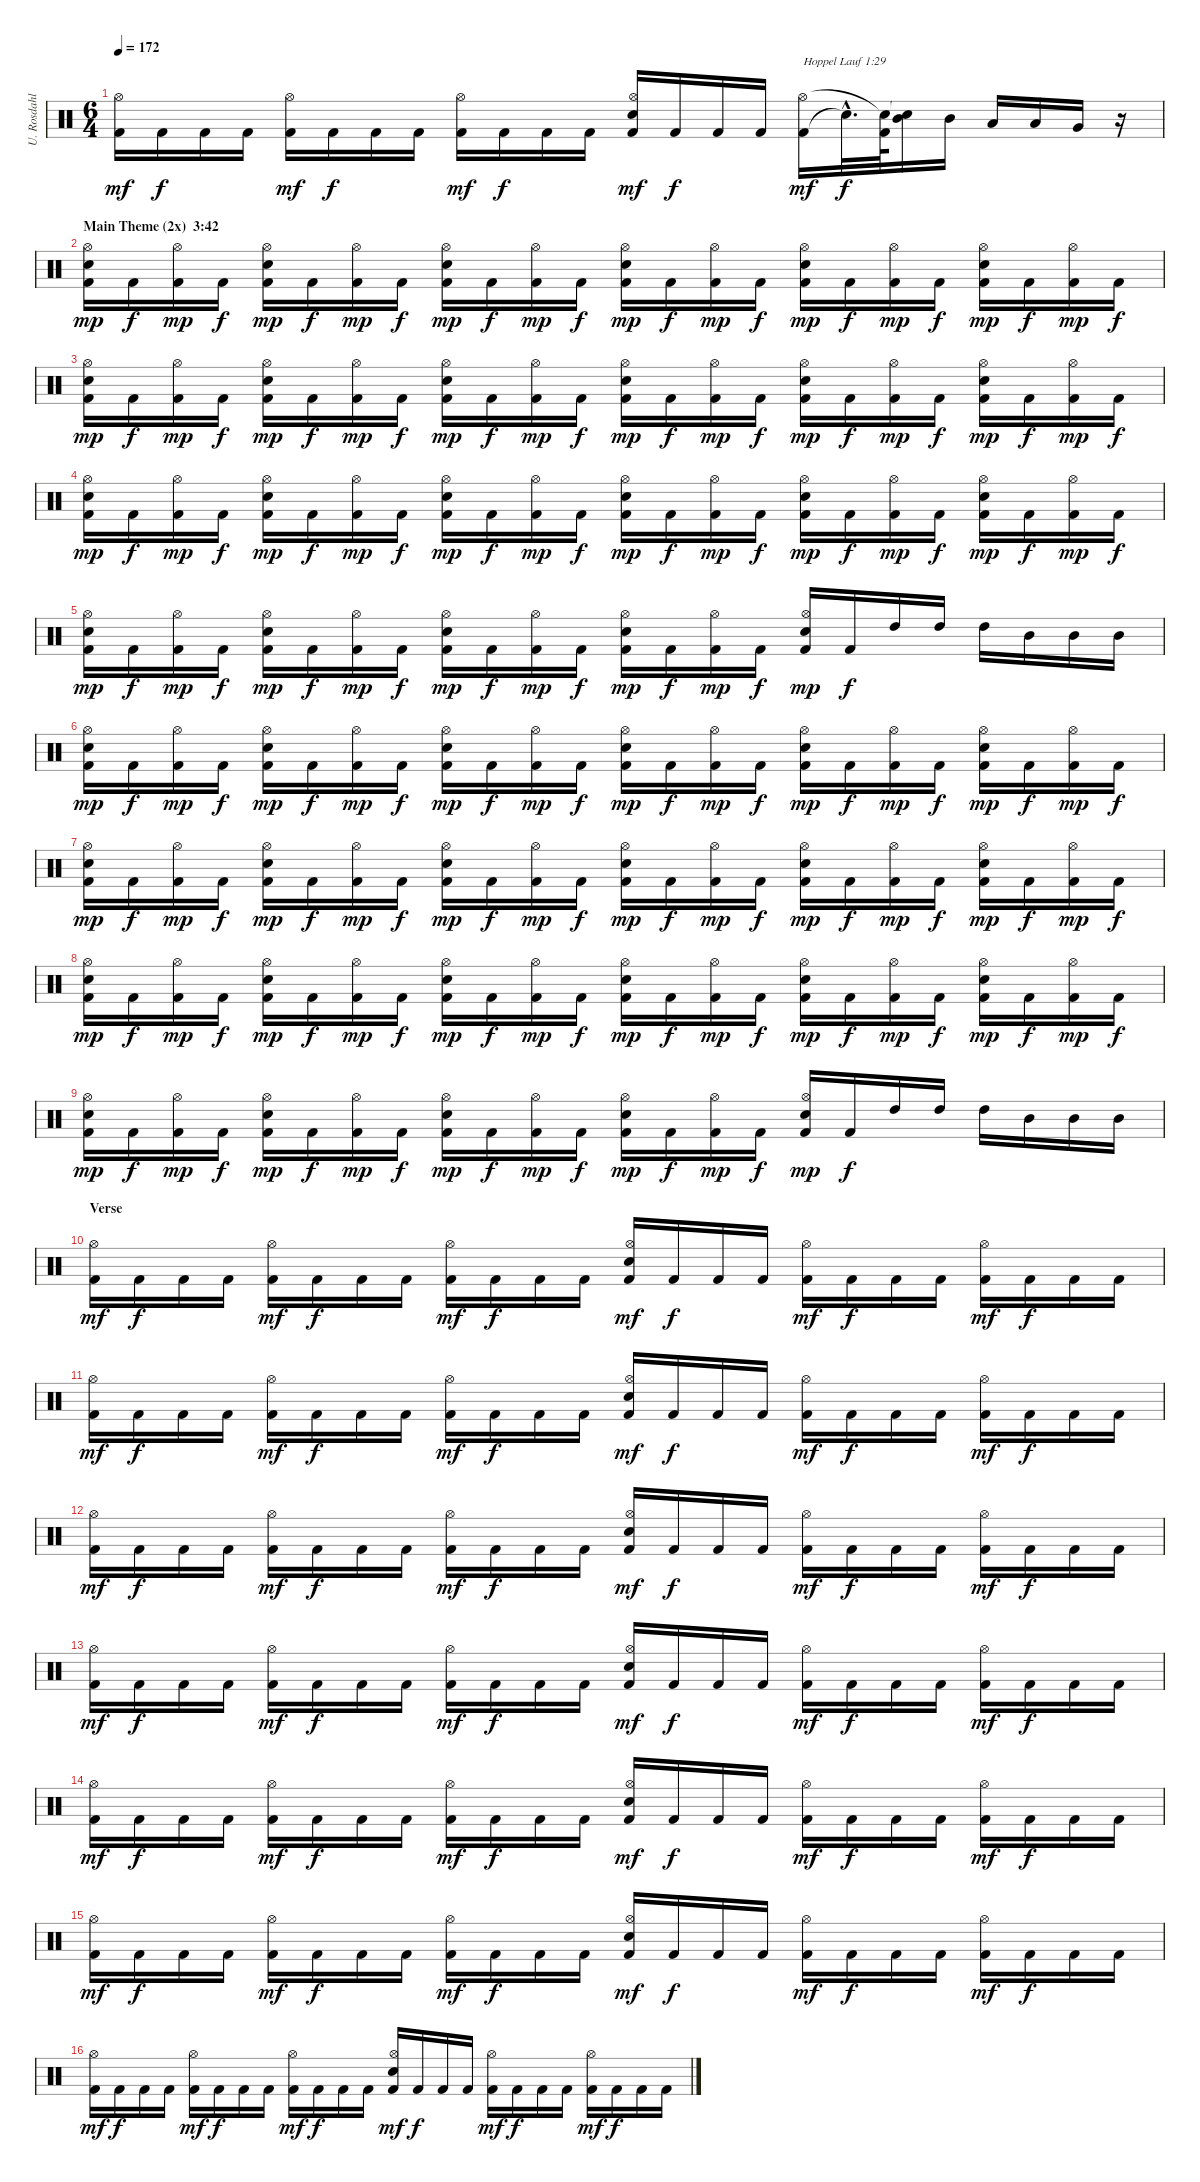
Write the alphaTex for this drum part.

\track ("U. Rosdahl" "U. Rosdahl") {instrument percussion}
\staff {score}
\articulation defaults
\ts (6 4)
\tempo 172
\clef neutral
\ks c
("Kick (hit) 2" "Hi-Hat (open)").16{dy mf} "Kick (hit) 2".16{dy f} "Kick (hit) 2".16 "Kick (hit) 2".16 ("Kick (hit) 2" "Hi-Hat (open)").16{dy mf} "Kick (hit) 2".16{dy f} "Kick (hit) 2".16 "Kick (hit) 2".16 ("Kick (hit) 2" "Hi-Hat (open)").16{dy mf} "Kick (hit) 2".16{dy f} "Kick (hit) 2".16 "Kick (hit) 2".16 ("Kick (hit) 2" "Electric Snare (hit)" "Hi-Hat (open)").16{dy mf} "Kick (hit) 2".16{dy f} "Kick (hit) 2".16 "Kick (hit) 2".16 ("Kick (hit) 2" "Hi-Hat (open)").16{txt "Hoppel Lauf 1:29" dy mf} "Snare (hit)"{hac t}.32{d dy f} ("Kick (hit) 2" "Snare (hit)"{t}).64 ("Mid Tom (hit)" "Snare (hit)"{t}).16 "Mid Tom (hit)".16 "Low Tom (hit)".16 "Low Tom (hit)".16 "Very Low Tom (hit)".16 r.16 |
\section ("" "Main Theme (2x)  3:42")
("Kick (hit) 2" "Electric Snare (hit)" "Hi-Hat (open)").16{dy mp} "Kick (hit) 2".16{dy f} ("Kick (hit) 2" "Hi-Hat (open)").16{dy mp} "Kick (hit) 2".16{dy f} ("Kick (hit) 2" "Electric Snare (hit)" "Hi-Hat (open)").16{dy mp} "Kick (hit) 2".16{dy f} ("Kick (hit) 2" "Hi-Hat (open)").16{dy mp} "Kick (hit) 2".16{dy f} ("Kick (hit) 2" "Electric Snare (hit)" "Hi-Hat (open)").16{dy mp} "Kick (hit) 2".16{dy f} ("Kick (hit) 2" "Hi-Hat (open)").16{dy mp} "Kick (hit) 2".16{dy f} ("Kick (hit) 2" "Electric Snare (hit)" "Hi-Hat (open)").16{dy mp} "Kick (hit) 2".16{dy f} ("Kick (hit) 2" "Hi-Hat (open)").16{dy mp} "Kick (hit) 2".16{dy f} ("Kick (hit) 2" "Electric Snare (hit)" "Hi-Hat (open)").16{dy mp} "Kick (hit) 2".16{dy f} ("Kick (hit) 2" "Hi-Hat (open)").16{dy mp} "Kick (hit) 2".16{dy f} ("Kick (hit) 2" "Electric Snare (hit)" "Hi-Hat (open)").16{dy mp} "Kick (hit) 2".16{dy f} ("Kick (hit) 2" "Hi-Hat (open)").16{dy mp} "Kick (hit) 2".16{dy f} |
("Kick (hit) 2" "Electric Snare (hit)" "Hi-Hat (open)").16{dy mp} "Kick (hit) 2".16{dy f} ("Kick (hit) 2" "Hi-Hat (open)").16{dy mp} "Kick (hit) 2".16{dy f} ("Kick (hit) 2" "Electric Snare (hit)" "Hi-Hat (open)").16{dy mp} "Kick (hit) 2".16{dy f} ("Kick (hit) 2" "Hi-Hat (open)").16{dy mp} "Kick (hit) 2".16{dy f} ("Kick (hit) 2" "Electric Snare (hit)" "Hi-Hat (open)").16{dy mp} "Kick (hit) 2".16{dy f} ("Kick (hit) 2" "Hi-Hat (open)").16{dy mp} "Kick (hit) 2".16{dy f} ("Kick (hit) 2" "Electric Snare (hit)" "Hi-Hat (open)").16{dy mp} "Kick (hit) 2".16{dy f} ("Kick (hit) 2" "Hi-Hat (open)").16{dy mp} "Kick (hit) 2".16{dy f} ("Kick (hit) 2" "Electric Snare (hit)" "Hi-Hat (open)").16{dy mp} "Kick (hit) 2".16{dy f} ("Kick (hit) 2" "Hi-Hat (open)").16{dy mp} "Kick (hit) 2".16{dy f} ("Kick (hit) 2" "Electric Snare (hit)" "Hi-Hat (open)").16{dy mp} "Kick (hit) 2".16{dy f} ("Kick (hit) 2" "Hi-Hat (open)").16{dy mp} "Kick (hit) 2".16{dy f} |
("Kick (hit) 2" "Electric Snare (hit)" "Hi-Hat (open)").16{dy mp} "Kick (hit) 2".16{dy f} ("Kick (hit) 2" "Hi-Hat (open)").16{dy mp} "Kick (hit) 2".16{dy f} ("Kick (hit) 2" "Electric Snare (hit)" "Hi-Hat (open)").16{dy mp} "Kick (hit) 2".16{dy f} ("Kick (hit) 2" "Hi-Hat (open)").16{dy mp} "Kick (hit) 2".16{dy f} ("Kick (hit) 2" "Electric Snare (hit)" "Hi-Hat (open)").16{dy mp} "Kick (hit) 2".16{dy f} ("Kick (hit) 2" "Hi-Hat (open)").16{dy mp} "Kick (hit) 2".16{dy f} ("Kick (hit) 2" "Electric Snare (hit)" "Hi-Hat (open)").16{dy mp} "Kick (hit) 2".16{dy f} ("Kick (hit) 2" "Hi-Hat (open)").16{dy mp} "Kick (hit) 2".16{dy f} ("Kick (hit) 2" "Electric Snare (hit)" "Hi-Hat (open)").16{dy mp} "Kick (hit) 2".16{dy f} ("Kick (hit) 2" "Hi-Hat (open)").16{dy mp} "Kick (hit) 2".16{dy f} ("Kick (hit) 2" "Electric Snare (hit)" "Hi-Hat (open)").16{dy mp} "Kick (hit) 2".16{dy f} ("Kick (hit) 2" "Hi-Hat (open)").16{dy mp} "Kick (hit) 2".16{dy f} |
("Kick (hit) 2" "Electric Snare (hit)" "Hi-Hat (open)").16{dy mp} "Kick (hit) 2".16{dy f} ("Kick (hit) 2" "Hi-Hat (open)").16{dy mp} "Kick (hit) 2".16{dy f} ("Kick (hit) 2" "Electric Snare (hit)" "Hi-Hat (open)").16{dy mp} "Kick (hit) 2".16{dy f} ("Kick (hit) 2" "Hi-Hat (open)").16{dy mp} "Kick (hit) 2".16{dy f} ("Kick (hit) 2" "Electric Snare (hit)" "Hi-Hat (open)").16{dy mp} "Kick (hit) 2".16{dy f} ("Kick (hit) 2" "Hi-Hat (open)").16{dy mp} "Kick (hit) 2".16{dy f} ("Kick (hit) 2" "Electric Snare (hit)" "Hi-Hat (open)").16{dy mp} "Kick (hit) 2".16{dy f} ("Kick (hit) 2" "Hi-Hat (open)").16{dy mp} "Kick (hit) 2".16{dy f} ("Kick (hit) 2" "Electric Snare (hit)" "Hi-Hat (open)").16{dy mp} "Kick (hit) 2".16{dy f} "High Tom (hit)".16 "High Tom (hit)".16 "High Tom (hit)".16 "Mid Tom (hit)".16 "Mid Tom (hit)".16 "Mid Tom (hit)".16 |
("Kick (hit) 2" "Electric Snare (hit)" "Hi-Hat (open)").16{dy mp} "Kick (hit) 2".16{dy f} ("Kick (hit) 2" "Hi-Hat (open)").16{dy mp} "Kick (hit) 2".16{dy f} ("Kick (hit) 2" "Electric Snare (hit)" "Hi-Hat (open)").16{dy mp} "Kick (hit) 2".16{dy f} ("Kick (hit) 2" "Hi-Hat (open)").16{dy mp} "Kick (hit) 2".16{dy f} ("Kick (hit) 2" "Electric Snare (hit)" "Hi-Hat (open)").16{dy mp} "Kick (hit) 2".16{dy f} ("Kick (hit) 2" "Hi-Hat (open)").16{dy mp} "Kick (hit) 2".16{dy f} ("Kick (hit) 2" "Electric Snare (hit)" "Hi-Hat (open)").16{dy mp} "Kick (hit) 2".16{dy f} ("Kick (hit) 2" "Hi-Hat (open)").16{dy mp} "Kick (hit) 2".16{dy f} ("Kick (hit) 2" "Electric Snare (hit)" "Hi-Hat (open)").16{dy mp} "Kick (hit) 2".16{dy f} ("Kick (hit) 2" "Hi-Hat (open)").16{dy mp} "Kick (hit) 2".16{dy f} ("Kick (hit) 2" "Electric Snare (hit)" "Hi-Hat (open)").16{dy mp} "Kick (hit) 2".16{dy f} ("Kick (hit) 2" "Hi-Hat (open)").16{dy mp} "Kick (hit) 2".16{dy f} |
("Kick (hit) 2" "Electric Snare (hit)" "Hi-Hat (open)").16{dy mp} "Kick (hit) 2".16{dy f} ("Kick (hit) 2" "Hi-Hat (open)").16{dy mp} "Kick (hit) 2".16{dy f} ("Kick (hit) 2" "Electric Snare (hit)" "Hi-Hat (open)").16{dy mp} "Kick (hit) 2".16{dy f} ("Kick (hit) 2" "Hi-Hat (open)").16{dy mp} "Kick (hit) 2".16{dy f} ("Kick (hit) 2" "Electric Snare (hit)" "Hi-Hat (open)").16{dy mp} "Kick (hit) 2".16{dy f} ("Kick (hit) 2" "Hi-Hat (open)").16{dy mp} "Kick (hit) 2".16{dy f} ("Kick (hit) 2" "Electric Snare (hit)" "Hi-Hat (open)").16{dy mp} "Kick (hit) 2".16{dy f} ("Kick (hit) 2" "Hi-Hat (open)").16{dy mp} "Kick (hit) 2".16{dy f} ("Kick (hit) 2" "Electric Snare (hit)" "Hi-Hat (open)").16{dy mp} "Kick (hit) 2".16{dy f} ("Kick (hit) 2" "Hi-Hat (open)").16{dy mp} "Kick (hit) 2".16{dy f} ("Kick (hit) 2" "Electric Snare (hit)" "Hi-Hat (open)").16{dy mp} "Kick (hit) 2".16{dy f} ("Kick (hit) 2" "Hi-Hat (open)").16{dy mp} "Kick (hit) 2".16{dy f} |
("Kick (hit) 2" "Electric Snare (hit)" "Hi-Hat (open)").16{dy mp} "Kick (hit) 2".16{dy f} ("Kick (hit) 2" "Hi-Hat (open)").16{dy mp} "Kick (hit) 2".16{dy f} ("Kick (hit) 2" "Electric Snare (hit)" "Hi-Hat (open)").16{dy mp} "Kick (hit) 2".16{dy f} ("Kick (hit) 2" "Hi-Hat (open)").16{dy mp} "Kick (hit) 2".16{dy f} ("Kick (hit) 2" "Electric Snare (hit)" "Hi-Hat (open)").16{dy mp} "Kick (hit) 2".16{dy f} ("Kick (hit) 2" "Hi-Hat (open)").16{dy mp} "Kick (hit) 2".16{dy f} ("Kick (hit) 2" "Electric Snare (hit)" "Hi-Hat (open)").16{dy mp} "Kick (hit) 2".16{dy f} ("Kick (hit) 2" "Hi-Hat (open)").16{dy mp} "Kick (hit) 2".16{dy f} ("Kick (hit) 2" "Electric Snare (hit)" "Hi-Hat (open)").16{dy mp} "Kick (hit) 2".16{dy f} ("Kick (hit) 2" "Hi-Hat (open)").16{dy mp} "Kick (hit) 2".16{dy f} ("Kick (hit) 2" "Electric Snare (hit)" "Hi-Hat (open)").16{dy mp} "Kick (hit) 2".16{dy f} ("Kick (hit) 2" "Hi-Hat (open)").16{dy mp} "Kick (hit) 2".16{dy f} |
("Kick (hit) 2" "Electric Snare (hit)" "Hi-Hat (open)").16{dy mp} "Kick (hit) 2".16{dy f} ("Kick (hit) 2" "Hi-Hat (open)").16{dy mp} "Kick (hit) 2".16{dy f} ("Kick (hit) 2" "Electric Snare (hit)" "Hi-Hat (open)").16{dy mp} "Kick (hit) 2".16{dy f} ("Kick (hit) 2" "Hi-Hat (open)").16{dy mp} "Kick (hit) 2".16{dy f} ("Kick (hit) 2" "Electric Snare (hit)" "Hi-Hat (open)").16{dy mp} "Kick (hit) 2".16{dy f} ("Kick (hit) 2" "Hi-Hat (open)").16{dy mp} "Kick (hit) 2".16{dy f} ("Kick (hit) 2" "Electric Snare (hit)" "Hi-Hat (open)").16{dy mp} "Kick (hit) 2".16{dy f} ("Kick (hit) 2" "Hi-Hat (open)").16{dy mp} "Kick (hit) 2".16{dy f} ("Kick (hit) 2" "Electric Snare (hit)" "Hi-Hat (open)").16{dy mp} "Kick (hit) 2".16{dy f} "High Tom (hit)".16 "High Tom (hit)".16 "High Tom (hit)".16 "Mid Tom (hit)".16 "Mid Tom (hit)".16 "Mid Tom (hit)".16 |
\section ("" "Verse")
("Kick (hit) 2" "Hi-Hat (open)").16{dy mf} "Kick (hit) 2".16{dy f} "Kick (hit) 2".16 "Kick (hit) 2".16 ("Kick (hit) 2" "Hi-Hat (open)").16{dy mf} "Kick (hit) 2".16{dy f} "Kick (hit) 2".16 "Kick (hit) 2".16 ("Kick (hit) 2" "Hi-Hat (open)").16{dy mf} "Kick (hit) 2".16{dy f} "Kick (hit) 2".16 "Kick (hit) 2".16 ("Kick (hit) 2" "Electric Snare (hit)" "Hi-Hat (open)").16{dy mf} "Kick (hit) 2".16{dy f} "Kick (hit) 2".16 "Kick (hit) 2".16 ("Kick (hit) 2" "Hi-Hat (open)").16{dy mf} "Kick (hit) 2".16{dy f} "Kick (hit) 2".16 "Kick (hit) 2".16 ("Kick (hit) 2" "Hi-Hat (open)").16{dy mf} "Kick (hit) 2".16{dy f} "Kick (hit) 2".16 "Kick (hit) 2".16 |
("Kick (hit) 2" "Hi-Hat (open)").16{dy mf} "Kick (hit) 2".16{dy f} "Kick (hit) 2".16 "Kick (hit) 2".16 ("Kick (hit) 2" "Hi-Hat (open)").16{dy mf} "Kick (hit) 2".16{dy f} "Kick (hit) 2".16 "Kick (hit) 2".16 ("Kick (hit) 2" "Hi-Hat (open)").16{dy mf} "Kick (hit) 2".16{dy f} "Kick (hit) 2".16 "Kick (hit) 2".16 ("Kick (hit) 2" "Electric Snare (hit)" "Hi-Hat (open)").16{dy mf} "Kick (hit) 2".16{dy f} "Kick (hit) 2".16 "Kick (hit) 2".16 ("Kick (hit) 2" "Hi-Hat (open)").16{dy mf} "Kick (hit) 2".16{dy f} "Kick (hit) 2".16 "Kick (hit) 2".16 ("Kick (hit) 2" "Hi-Hat (open)").16{dy mf} "Kick (hit) 2".16{dy f} "Kick (hit) 2".16 "Kick (hit) 2".16 |
("Kick (hit) 2" "Hi-Hat (open)").16{dy mf} "Kick (hit) 2".16{dy f} "Kick (hit) 2".16 "Kick (hit) 2".16 ("Kick (hit) 2" "Hi-Hat (open)").16{dy mf} "Kick (hit) 2".16{dy f} "Kick (hit) 2".16 "Kick (hit) 2".16 ("Kick (hit) 2" "Hi-Hat (open)").16{dy mf} "Kick (hit) 2".16{dy f} "Kick (hit) 2".16 "Kick (hit) 2".16 ("Kick (hit) 2" "Electric Snare (hit)" "Hi-Hat (open)").16{dy mf} "Kick (hit) 2".16{dy f} "Kick (hit) 2".16 "Kick (hit) 2".16 ("Kick (hit) 2" "Hi-Hat (open)").16{dy mf} "Kick (hit) 2".16{dy f} "Kick (hit) 2".16 "Kick (hit) 2".16 ("Kick (hit) 2" "Hi-Hat (open)").16{dy mf} "Kick (hit) 2".16{dy f} "Kick (hit) 2".16 "Kick (hit) 2".16 |
("Kick (hit) 2" "Hi-Hat (open)").16{dy mf} "Kick (hit) 2".16{dy f} "Kick (hit) 2".16 "Kick (hit) 2".16 ("Kick (hit) 2" "Hi-Hat (open)").16{dy mf} "Kick (hit) 2".16{dy f} "Kick (hit) 2".16 "Kick (hit) 2".16 ("Kick (hit) 2" "Hi-Hat (open)").16{dy mf} "Kick (hit) 2".16{dy f} "Kick (hit) 2".16 "Kick (hit) 2".16 ("Kick (hit) 2" "Electric Snare (hit)" "Hi-Hat (open)").16{dy mf} "Kick (hit) 2".16{dy f} "Kick (hit) 2".16 "Kick (hit) 2".16 ("Kick (hit) 2" "Hi-Hat (open)").16{dy mf} "Kick (hit) 2".16{dy f} "Kick (hit) 2".16 "Kick (hit) 2".16 ("Kick (hit) 2" "Hi-Hat (open)").16{dy mf} "Kick (hit) 2".16{dy f} "Kick (hit) 2".16 "Kick (hit) 2".16 |
("Kick (hit) 2" "Hi-Hat (open)").16{dy mf} "Kick (hit) 2".16{dy f} "Kick (hit) 2".16 "Kick (hit) 2".16 ("Kick (hit) 2" "Hi-Hat (open)").16{dy mf} "Kick (hit) 2".16{dy f} "Kick (hit) 2".16 "Kick (hit) 2".16 ("Kick (hit) 2" "Hi-Hat (open)").16{dy mf} "Kick (hit) 2".16{dy f} "Kick (hit) 2".16 "Kick (hit) 2".16 ("Kick (hit) 2" "Electric Snare (hit)" "Hi-Hat (open)").16{dy mf} "Kick (hit) 2".16{dy f} "Kick (hit) 2".16 "Kick (hit) 2".16 ("Kick (hit) 2" "Hi-Hat (open)").16{dy mf} "Kick (hit) 2".16{dy f} "Kick (hit) 2".16 "Kick (hit) 2".16 ("Kick (hit) 2" "Hi-Hat (open)").16{dy mf} "Kick (hit) 2".16{dy f} "Kick (hit) 2".16 "Kick (hit) 2".16 |
("Kick (hit) 2" "Hi-Hat (open)").16{dy mf} "Kick (hit) 2".16{dy f} "Kick (hit) 2".16 "Kick (hit) 2".16 ("Kick (hit) 2" "Hi-Hat (open)").16{dy mf} "Kick (hit) 2".16{dy f} "Kick (hit) 2".16 "Kick (hit) 2".16 ("Kick (hit) 2" "Hi-Hat (open)").16{dy mf} "Kick (hit) 2".16{dy f} "Kick (hit) 2".16 "Kick (hit) 2".16 ("Kick (hit) 2" "Electric Snare (hit)" "Hi-Hat (open)").16{dy mf} "Kick (hit) 2".16{dy f} "Kick (hit) 2".16 "Kick (hit) 2".16 ("Kick (hit) 2" "Hi-Hat (open)").16{dy mf} "Kick (hit) 2".16{dy f} "Kick (hit) 2".16 "Kick (hit) 2".16 ("Kick (hit) 2" "Hi-Hat (open)").16{dy mf} "Kick (hit) 2".16{dy f} "Kick (hit) 2".16 "Kick (hit) 2".16 |
("Kick (hit) 2" "Hi-Hat (open)").16{dy mf} "Kick (hit) 2".16{dy f} "Kick (hit) 2".16 "Kick (hit) 2".16 ("Kick (hit) 2" "Hi-Hat (open)").16{dy mf} "Kick (hit) 2".16{dy f} "Kick (hit) 2".16 "Kick (hit) 2".16 ("Kick (hit) 2" "Hi-Hat (open)").16{dy mf} "Kick (hit) 2".16{dy f} "Kick (hit) 2".16 "Kick (hit) 2".16 ("Kick (hit) 2" "Electric Snare (hit)" "Hi-Hat (open)").16{dy mf} "Kick (hit) 2".16{dy f} "Kick (hit) 2".16 "Kick (hit) 2".16 ("Kick (hit) 2" "Hi-Hat (open)").16{dy mf} "Kick (hit) 2".16{dy f} "Kick (hit) 2".16 "Kick (hit) 2".16 ("Kick (hit) 2" "Hi-Hat (open)").16{dy mf} "Kick (hit) 2".16{dy f} "Kick (hit) 2".16 "Kick (hit) 2".16
